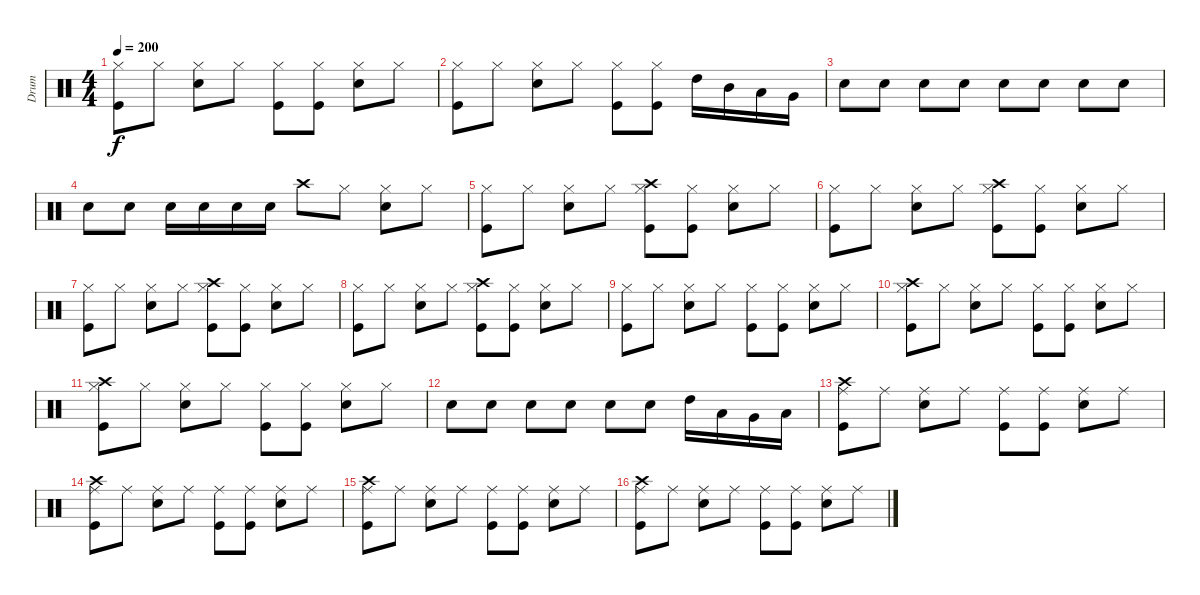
\track ("Drum" "Drum") {instrument percussion}
\staff {score}
\articulation defaults
\ts (4 4)
\tempo 200
\clef neutral
\ks c
("Hi-Hat (closed)" "Kick (hit)").8{dy f} "Hi-Hat (closed)".8 ("Hi-Hat (closed)" "Electric Snare (hit)").8 "Hi-Hat (closed)".8 ("Hi-Hat (closed)" "Kick (hit)").8 ("Hi-Hat (closed)" "Kick (hit)").8 ("Hi-Hat (closed)" "Electric Snare (hit)").8 "Hi-Hat (closed)".8 |
("Hi-Hat (closed)" "Kick (hit)").8 "Hi-Hat (closed)".8 ("Hi-Hat (closed)" "Electric Snare (hit)").8 "Hi-Hat (closed)".8 ("Hi-Hat (closed)" "Kick (hit)").8 ("Hi-Hat (closed)" "Kick (hit)").8 "High Tom (hit)".16 "Mid Tom (hit)".16 "Low Tom (hit)".16 "Very Low Tom (hit)".16 |
"Electric Snare (hit)".8 "Electric Snare (hit)".8 "Electric Snare (hit)".8 "Electric Snare (hit)".8 "Electric Snare (hit)".8 "Electric Snare (hit)".8 "Electric Snare (hit)".8 "Electric Snare (hit)".8 |
"Electric Snare (hit)".8 "Electric Snare (hit)".8 "Electric Snare (hit)".16 "Electric Snare (hit)".16 "Electric Snare (hit)".16 "Electric Snare (hit)".16 "Crash high (hit)".8 "Hi-Hat (closed)".8 ("Hi-Hat (closed)" "Electric Snare (hit)").8 "Hi-Hat (closed)".8 |
("Hi-Hat (closed)" "Kick (hit)").8 "Hi-Hat (closed)".8 ("Hi-Hat (closed)" "Electric Snare (hit)").8 "Hi-Hat (closed)".8 ("Crash high (hit)" "Hi-Hat (closed)" "Kick (hit)").8 ("Hi-Hat (closed)" "Kick (hit)").8 ("Hi-Hat (closed)" "Electric Snare (hit)").8 "Hi-Hat (closed)".8 |
("Hi-Hat (closed)" "Kick (hit)").8 "Hi-Hat (closed)".8 ("Hi-Hat (closed)" "Electric Snare (hit)").8 "Hi-Hat (closed)".8 ("Crash high (hit)" "Hi-Hat (closed)" "Kick (hit)").8 ("Hi-Hat (closed)" "Kick (hit)").8 ("Hi-Hat (closed)" "Electric Snare (hit)").8 "Hi-Hat (closed)".8 |
("Hi-Hat (closed)" "Kick (hit)").8 "Hi-Hat (closed)".8 ("Hi-Hat (closed)" "Electric Snare (hit)").8 "Hi-Hat (closed)".8 ("Crash high (hit)" "Hi-Hat (closed)" "Kick (hit)").8 ("Hi-Hat (closed)" "Kick (hit)").8 ("Hi-Hat (closed)" "Electric Snare (hit)").8 "Hi-Hat (closed)".8 |
("Hi-Hat (closed)" "Kick (hit)").8 "Hi-Hat (closed)".8 ("Hi-Hat (closed)" "Electric Snare (hit)").8 "Hi-Hat (closed)".8 ("Crash high (hit)" "Hi-Hat (closed)" "Kick (hit)").8 ("Hi-Hat (closed)" "Kick (hit)").8 ("Hi-Hat (closed)" "Electric Snare (hit)").8 "Hi-Hat (closed)".8 |
("Hi-Hat (closed)" "Kick (hit)").8 "Hi-Hat (closed)".8 ("Hi-Hat (closed)" "Electric Snare (hit)").8 "Hi-Hat (closed)".8 ("Hi-Hat (closed)" "Kick (hit)").8 ("Hi-Hat (closed)" "Kick (hit)").8 ("Hi-Hat (closed)" "Electric Snare (hit)").8 "Hi-Hat (closed)".8 |
("Crash high (hit)" "Hi-Hat (closed)" "Kick (hit)").8 "Hi-Hat (closed)".8 ("Hi-Hat (closed)" "Electric Snare (hit)").8 "Hi-Hat (closed)".8 ("Hi-Hat (closed)" "Kick (hit)").8 ("Hi-Hat (closed)" "Kick (hit)").8 ("Hi-Hat (closed)" "Electric Snare (hit)").8 "Hi-Hat (closed)".8 |
("Crash high (hit)" "Hi-Hat (closed)" "Kick (hit)").8 "Hi-Hat (closed)".8 ("Hi-Hat (closed)" "Electric Snare (hit)").8 "Hi-Hat (closed)".8 ("Hi-Hat (closed)" "Kick (hit)").8 ("Hi-Hat (closed)" "Kick (hit)").8 ("Hi-Hat (closed)" "Electric Snare (hit)").8 "Hi-Hat (closed)".8 |
"Electric Snare (hit)".8 "Electric Snare (hit)".8 "Electric Snare (hit)".8 "Electric Snare (hit)".8 "Electric Snare (hit)".8 "Electric Snare (hit)".8 "High Tom (hit)".16 "Low Tom (hit)".16 "Very Low Tom (hit)".16 "Low Floor Tom (hit)".16 |
("Crash high (hit)" "Ride (middle)" "Kick (hit)").8 "Ride (middle)".8 ("Ride (middle)" "Electric Snare (hit)").8 "Ride (middle)".8 ("Ride (middle)" "Kick (hit)").8 ("Ride (middle)" "Kick (hit)").8 ("Ride (middle)" "Electric Snare (hit)").8 "Ride (middle)".8 |
("Crash high (hit)" "Ride (middle)" "Kick (hit)").8 "Ride (middle)".8 ("Ride (middle)" "Electric Snare (hit)").8 "Ride (middle)".8 ("Ride (middle)" "Kick (hit)").8 ("Ride (middle)" "Kick (hit)").8 ("Ride (middle)" "Electric Snare (hit)").8 "Ride (middle)".8 |
("Crash high (hit)" "Ride (middle)" "Kick (hit)").8 "Ride (middle)".8 ("Ride (middle)" "Electric Snare (hit)").8 "Ride (middle)".8 ("Ride (middle)" "Kick (hit)").8 ("Ride (middle)" "Kick (hit)").8 ("Ride (middle)" "Electric Snare (hit)").8 "Ride (middle)".8 |
("Crash high (hit)" "Ride (middle)" "Kick (hit)").8 "Ride (middle)".8 ("Ride (middle)" "Electric Snare (hit)").8 "Ride (middle)".8 ("Ride (middle)" "Kick (hit)").8 ("Ride (middle)" "Kick (hit)").8 ("Ride (middle)" "Electric Snare (hit)").8 "Ride (middle)".8
